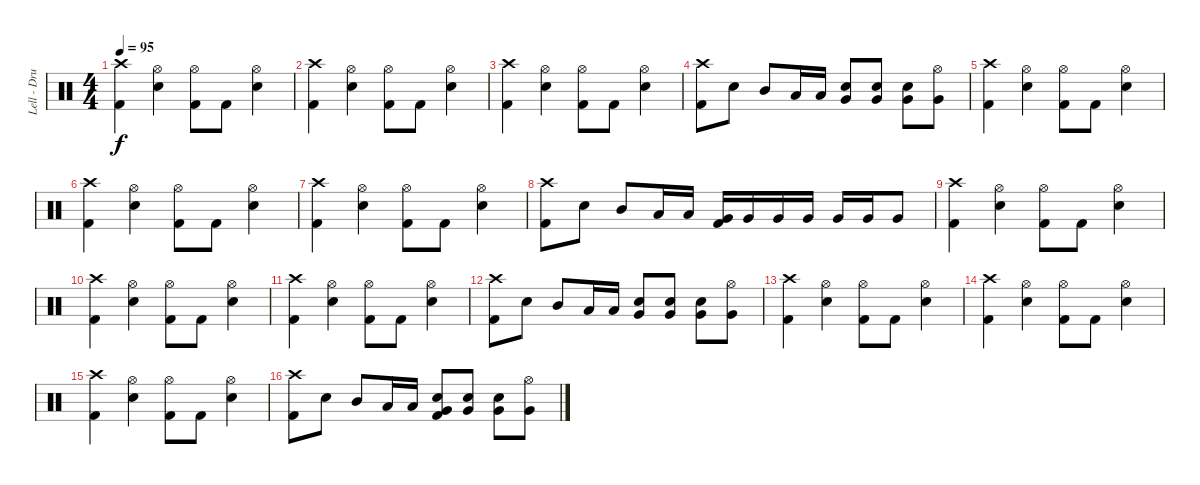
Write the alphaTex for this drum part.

\track ("Lell - Drums" "Lell - Dru") {instrument percussion}
\staff {score}
\articulation defaults
\ts (4 4)
\tempo 95
\clef neutral
\ks c
("Crash high (hit)" "Kick (hit) 2").4{dy f} ("Hi-Hat (open)" "Snare (hit) 2").4 ("Hi-Hat (open)" "Kick (hit) 2").8 "Kick (hit) 2".8 ("Hi-Hat (open)" "Snare (hit) 2").4 |
("Crash high (hit)" "Kick (hit) 2").4 ("Hi-Hat (open)" "Snare (hit) 2").4 ("Hi-Hat (open)" "Kick (hit) 2").8 "Kick (hit) 2".8 ("Hi-Hat (open)" "Snare (hit) 2").4 |
("Crash high (hit)" "Kick (hit) 2").4 ("Hi-Hat (open)" "Snare (hit) 2").4 ("Hi-Hat (open)" "Kick (hit) 2").8 "Kick (hit) 2".8 ("Hi-Hat (open)" "Snare (hit) 2").4 |
("Crash high (hit)" "Kick (hit) 2").8 "Snare (hit) 2".8 "Mid Tom (hit)".8 "Low Tom (hit)".16 "Low Tom (hit)".16 ("Very Low Tom (hit)" "Snare (hit) 2").8 ("Very Low Tom (hit)" "Snare (hit) 2").8 ("Very Low Tom (hit)" "Snare (hit) 2").8 ("Hi-Hat (open)" "Very Low Tom (hit)").8 |
("Crash high (hit)" "Kick (hit) 2").4 ("Hi-Hat (open)" "Snare (hit) 2").4 ("Hi-Hat (open)" "Kick (hit) 2").8 "Kick (hit) 2".8 ("Hi-Hat (open)" "Snare (hit) 2").4 |
("Crash high (hit)" "Kick (hit) 2").4 ("Hi-Hat (open)" "Snare (hit) 2").4 ("Hi-Hat (open)" "Kick (hit) 2").8 "Kick (hit) 2".8 ("Hi-Hat (open)" "Snare (hit) 2").4 |
("Crash high (hit)" "Kick (hit) 2").4 ("Hi-Hat (open)" "Snare (hit) 2").4 ("Hi-Hat (open)" "Kick (hit) 2").8 "Kick (hit) 2".8 ("Hi-Hat (open)" "Snare (hit) 2").4 |
("Crash high (hit)" "Kick (hit) 2").8 "Snare (hit) 2".8 "Mid Tom (hit)".8 "Low Tom (hit)".16 "Low Tom (hit)".16 ("Very Low Tom (hit)" "Kick (hit) 2").16 "Very Low Tom (hit)".16 "Very Low Tom (hit)".16 "Very Low Tom (hit)".16 "Very Low Tom (hit)".16 "Very Low Tom (hit)".16 "Very Low Tom (hit)".8 |
("Crash high (hit)" "Kick (hit) 2").4 ("Hi-Hat (open)" "Snare (hit) 2").4 ("Hi-Hat (open)" "Kick (hit) 2").8 "Kick (hit) 2".8 ("Hi-Hat (open)" "Snare (hit) 2").4 |
("Crash high (hit)" "Kick (hit) 2").4 ("Hi-Hat (open)" "Snare (hit) 2").4 ("Hi-Hat (open)" "Kick (hit) 2").8 "Kick (hit) 2".8 ("Hi-Hat (open)" "Snare (hit) 2").4 |
("Crash high (hit)" "Kick (hit) 2").4 ("Hi-Hat (open)" "Snare (hit) 2").4 ("Hi-Hat (open)" "Kick (hit) 2").8 "Kick (hit) 2".8 ("Hi-Hat (open)" "Snare (hit) 2").4 |
("Crash high (hit)" "Kick (hit) 2").8 "Snare (hit) 2".8 "Mid Tom (hit)".8 "Low Tom (hit)".16 "Low Tom (hit)".16 ("Very Low Tom (hit)" "Snare (hit) 2").8 ("Very Low Tom (hit)" "Snare (hit) 2").8 ("Very Low Tom (hit)" "Snare (hit) 2").8 ("Hi-Hat (open)" "Very Low Tom (hit)").8 |
("Crash high (hit)" "Kick (hit) 2").4 ("Hi-Hat (open)" "Snare (hit) 2").4 ("Hi-Hat (open)" "Kick (hit) 2").8 "Kick (hit) 2".8 ("Hi-Hat (open)" "Snare (hit) 2").4 |
("Crash high (hit)" "Kick (hit) 2").4 ("Hi-Hat (open)" "Snare (hit) 2").4 ("Hi-Hat (open)" "Kick (hit) 2").8 "Kick (hit) 2".8 ("Hi-Hat (open)" "Snare (hit) 2").4 |
("Crash high (hit)" "Kick (hit) 2").4 ("Hi-Hat (open)" "Snare (hit) 2").4 ("Hi-Hat (open)" "Kick (hit) 2").8 "Kick (hit) 2".8 ("Hi-Hat (open)" "Snare (hit) 2").4 |
("Crash high (hit)" "Kick (hit) 2").8 "Snare (hit) 2".8 "Mid Tom (hit)".8 "Low Tom (hit)".16 "Low Tom (hit)".16 ("Very Low Tom (hit)" "Snare (hit) 2" "Kick (hit) 2").8 ("Very Low Tom (hit)" "Snare (hit) 2").8 ("Very Low Tom (hit)" "Snare (hit) 2").8 ("Hi-Hat (open)" "Very Low Tom (hit)").8
